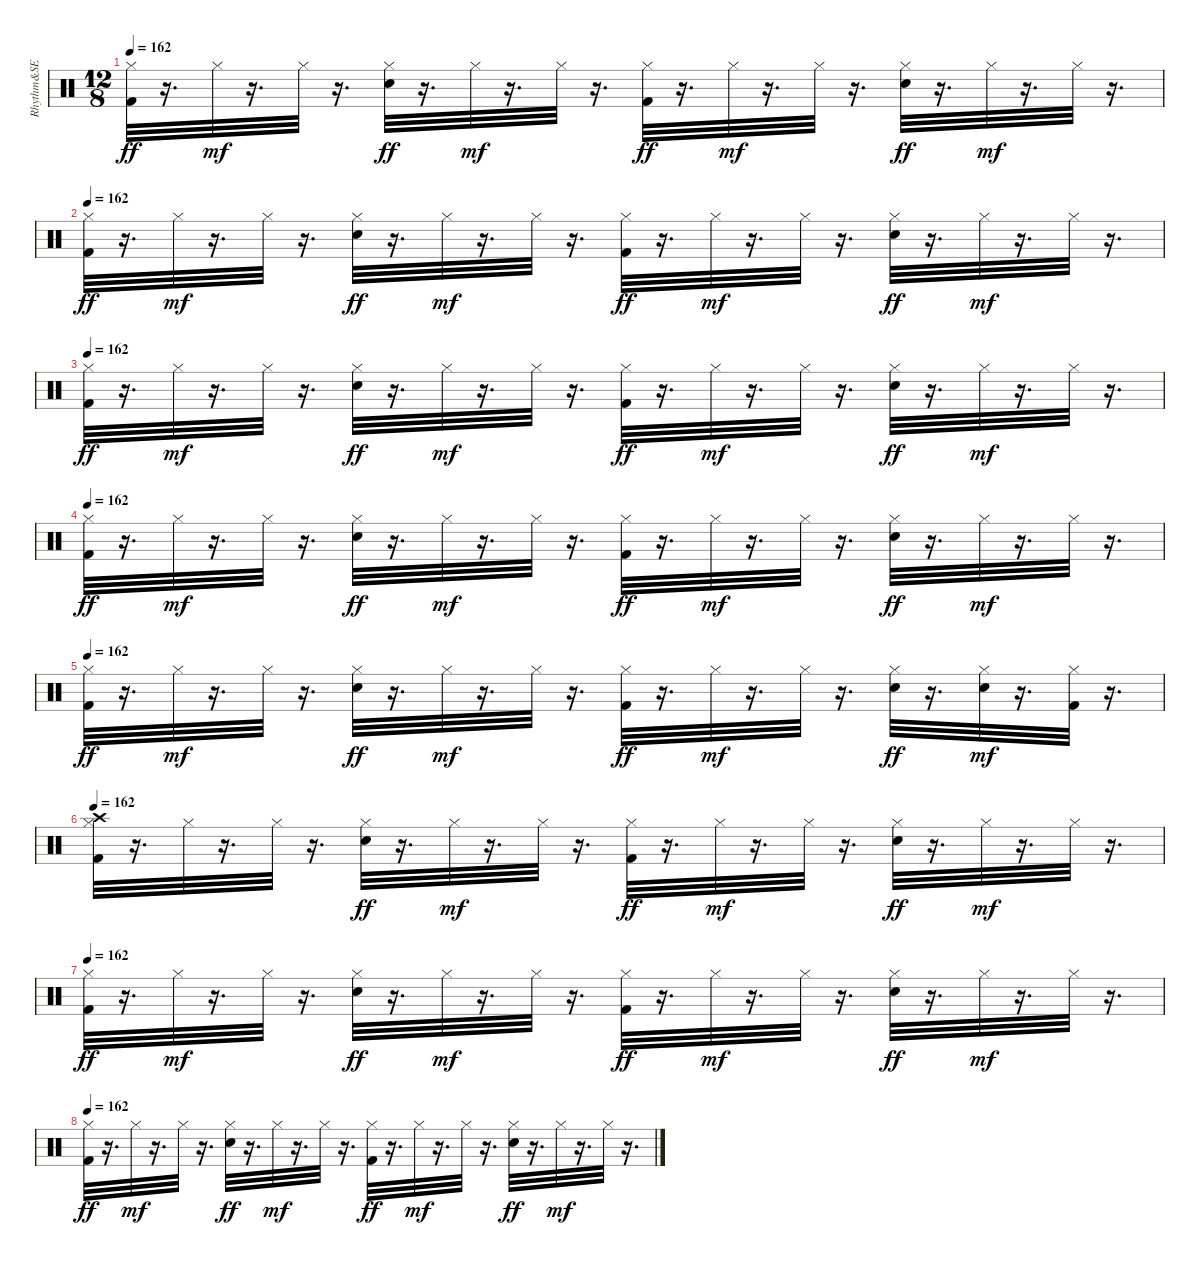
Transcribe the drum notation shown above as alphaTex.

\track ("Rhythm&SE" "Rhythm&SE") {instrument percussion}
\staff {score}
\articulation defaults
\ts (12 8)
\tempo 162
\clef neutral
\ks c
("Kick (hit) 2" "Hi-Hat (closed)").32{dy ff balance 8} r.16{d} "Hi-Hat (closed)".32{dy mf volume 10} r.16{d} "Hi-Hat (closed)".32 r.16{d} ("Snare (hit) 2" "Hi-Hat (closed)").32{dy ff} r.16{d} "Hi-Hat (closed)".32{dy mf volume 11} r.16{d} "Hi-Hat (closed)".32 r.16{d} ("Kick (hit) 2" "Hi-Hat (closed)").32{dy ff volume 11} r.16{d} "Hi-Hat (closed)".32{dy mf} r.16{d} "Hi-Hat (closed)".32{volume 11} r.16{d} ("Snare (hit) 2" "Hi-Hat (closed)").32{dy ff} r.16{d} "Hi-Hat (closed)".32{dy mf} r.16{d} "Hi-Hat (closed)".32{volume 11} r.16{d} |
\tempo 162
("Kick (hit) 2" "Hi-Hat (closed)").32{dy ff balance 8} r.16{d} "Hi-Hat (closed)".32{dy mf volume 11} r.16{d} "Hi-Hat (closed)".32 r.16{d} ("Snare (hit) 2" "Hi-Hat (closed)").32{dy ff volume 11} r.16{d} "Hi-Hat (closed)".32{dy mf} r.16{d} "Hi-Hat (closed)".32 r.16{d} ("Kick (hit) 2" "Hi-Hat (closed)").32{dy ff volume 11} r.16{d} "Hi-Hat (closed)".32{dy mf} r.16{d} "Hi-Hat (closed)".32{volume 12} r.16{d} ("Snare (hit) 2" "Hi-Hat (closed)").32{dy ff} r.16{d} "Hi-Hat (closed)".32{dy mf volume 12} r.16{d} "Hi-Hat (closed)".32 r.16{d} |
\tempo 162
("Kick (hit) 2" "Hi-Hat (closed)").32{dy ff balance 8} r.16{d} "Hi-Hat (closed)".32{dy mf} r.16{d} "Hi-Hat (closed)".32 r.16{d} ("Snare (hit) 2" "Hi-Hat (closed)").32{dy ff volume 12} r.16{d} "Hi-Hat (closed)".32{dy mf} r.16{d} "Hi-Hat (closed)".32{volume 12} r.16{d} ("Kick (hit) 2" "Hi-Hat (closed)").32{dy ff} r.16{d} "Hi-Hat (closed)".32{dy mf volume 12} r.16{d} "Hi-Hat (closed)".32 r.16{d} ("Snare (hit) 2" "Hi-Hat (closed)").32{dy ff} r.16{d} "Hi-Hat (closed)".32{dy mf volume 12} r.16{d} "Hi-Hat (closed)".32 r.16{d} |
\tempo 162
("Kick (hit) 2" "Hi-Hat (closed)").32{dy ff volume 12 balance 8} r.16{d} "Hi-Hat (closed)".32{dy mf} r.16{d} "Hi-Hat (closed)".32{volume 12} r.16{d} ("Snare (hit) 2" "Hi-Hat (closed)").32{dy ff} r.16{d} "Hi-Hat (closed)".32{dy mf volume 13} r.16{d} "Hi-Hat (closed)".32 r.16{d} ("Kick (hit) 2" "Hi-Hat (closed)").32{dy ff} r.16{d} "Hi-Hat (closed)".32{dy mf volume 13} r.16{d} "Hi-Hat (closed)".32 r.16{d} ("Snare (hit) 2" "Hi-Hat (closed)").32{dy ff volume 13} r.16{d} "Hi-Hat (closed)".32{dy mf} r.16{d} "Hi-Hat (closed)".32{volume 13} r.16{d} |
\tempo 162
("Kick (hit) 2" "Hi-Hat (closed)").32{dy ff balance 8} r.16{d} "Hi-Hat (closed)".32{dy mf} r.16{d} "Hi-Hat (closed)".32{volume 13} r.16{d} ("Snare (hit) 2" "Hi-Hat (closed)").32{dy ff} r.16{d} "Hi-Hat (closed)".32{dy mf volume 13} r.16{d} "Hi-Hat (closed)".32 r.16{d} ("Kick (hit) 2" "Hi-Hat (closed)").32{dy ff volume 13} r.16{d} "Hi-Hat (closed)".32{dy mf} r.16{d} "Hi-Hat (closed)".32{volume 14} r.16{d} ("Snare (hit) 2" "Hi-Hat (closed)").32{dy ff} r.16{d} ("Snare (hit) 2" "Hi-Hat (closed)").32{dy mf} r.16{d} ("Kick (hit) 2" "Hi-Hat (closed)").32 r.16{d} |
\tempo 162
("Kick (hit) 2" "Hi-Hat (closed)" "Crash high (hit)").32{volume 14 balance 8} r.16{d} "Hi-Hat (closed)".32 r.16{d} "Hi-Hat (closed)".32{volume 14} r.16{d} ("Snare (hit) 2" "Hi-Hat (closed)").32{dy ff} r.16{d} "Hi-Hat (closed)".32{dy mf} r.16{d} "Hi-Hat (closed)".32 r.16{d} ("Kick (hit) 2" "Hi-Hat (closed)").32{dy ff} r.16{d} "Hi-Hat (closed)".32{dy mf} r.16{d} "Hi-Hat (closed)".32 r.16{d} ("Snare (hit) 2" "Hi-Hat (closed)").32{dy ff} r.16{d} "Hi-Hat (closed)".32{dy mf} r.16{d} "Hi-Hat (closed)".32 r.16{d} |
\tempo 162
("Kick (hit) 2" "Hi-Hat (closed)").32{dy ff volume 14 balance 8} r.16{d} "Hi-Hat (closed)".32{dy mf} r.16{d} "Hi-Hat (closed)".32{volume 14} r.16{d} ("Snare (hit) 2" "Hi-Hat (closed)").32{dy ff} r.16{d} "Hi-Hat (closed)".32{dy mf} r.16{d} "Hi-Hat (closed)".32 r.16{d} ("Kick (hit) 2" "Hi-Hat (closed)").32{dy ff} r.16{d} "Hi-Hat (closed)".32{dy mf} r.16{d} "Hi-Hat (closed)".32 r.16{d} ("Snare (hit) 2" "Hi-Hat (closed)").32{dy ff} r.16{d} "Hi-Hat (closed)".32{dy mf} r.16{d} "Hi-Hat (closed)".32 r.16{d} |
\tempo 162
("Kick (hit) 2" "Hi-Hat (closed)").32{dy ff volume 14 balance 8} r.16{d} "Hi-Hat (closed)".32{dy mf} r.16{d} "Hi-Hat (closed)".32{volume 14} r.16{d} ("Snare (hit) 2" "Hi-Hat (closed)").32{dy ff} r.16{d} "Hi-Hat (closed)".32{dy mf} r.16{d} "Hi-Hat (closed)".32 r.16{d} ("Kick (hit) 2" "Hi-Hat (closed)").32{dy ff} r.16{d} "Hi-Hat (closed)".32{dy mf} r.16{d} "Hi-Hat (closed)".32 r.16{d} ("Snare (hit) 2" "Hi-Hat (closed)").32{dy ff} r.16{d} "Hi-Hat (closed)".32{dy mf} r.16{d} "Hi-Hat (closed)".32 r.16{d}
